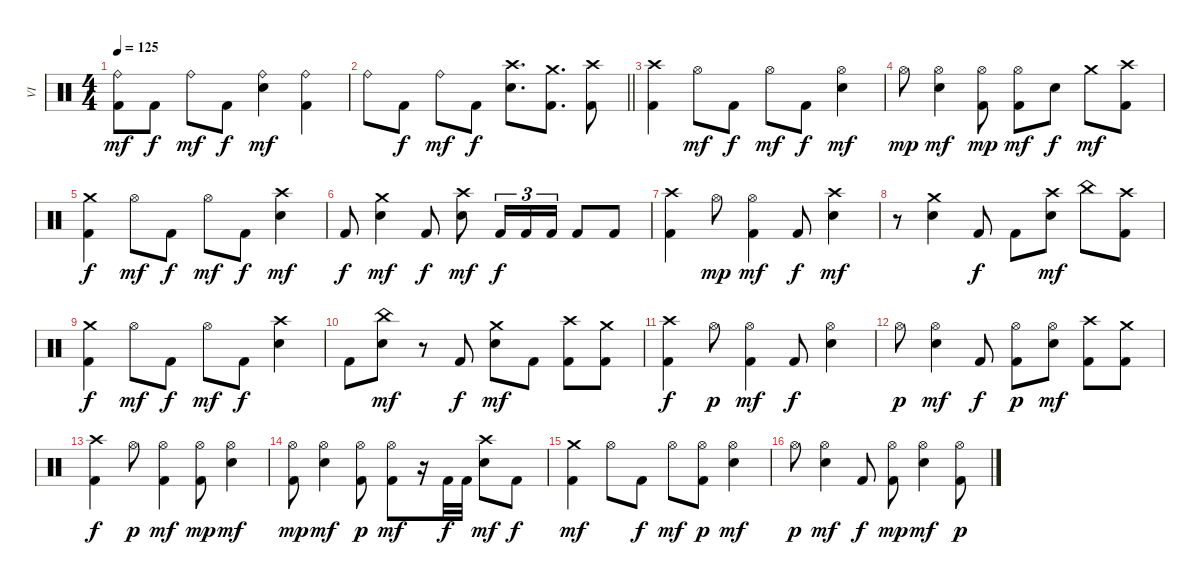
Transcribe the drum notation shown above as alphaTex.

\track ("VI" "VI") {instrument percussion}
\staff {score}
\articulation defaults
\ts (4 4)
\tempo 125
\clef neutral
\ks c
("Ride (bell)" "Kick (hit) 2").8{dy mf} "Kick (hit) 2".8{dy f} "Ride (bell)".8{dy mf} "Kick (hit) 2".8{dy f} ("Ride (bell)" "Electric Snare (hit)").4{dy mf} ("Ride (bell)" "Kick (hit) 2").4 |
\barLineRight lightlight "Ride (bell)".8 "Kick (hit) 2".8{dy f} "Ride (bell)".8{dy mf} "Kick (hit) 2".8{dy f}
("Crash high (hit)" "Electric Snare (hit)").8{d} ("Crash medium (hit)" "Kick (hit) 2").8{d} ("Crash high (hit)" "Kick (hit) 2").8 |
\section ("" "")
("Crash high (hit)" "Kick (hit) 2").4 "Hi-Hat (open)".8{dy mf} "Kick (hit) 2".8{dy f} "Hi-Hat (open)".8{dy mf} "Kick (hit) 2".8{dy f} ("Hi-Hat (open)" "Electric Snare (hit)").4{dy mf} |
"Hi-Hat (open)".8{dy mp} ("Hi-Hat (open)" "Electric Snare (hit)").4{dy mf} ("Hi-Hat (open)" "Kick (hit) 2").8{dy mp} ("Hi-Hat (open)" "Kick (hit) 2").8{dy mf} "Electric Snare (hit)".8{dy f} "Crash medium (hit)".8{dy mf} ("Crash high (hit)" "Kick (hit) 2").8 |
("Crash medium (hit)" "Kick (hit) 2").4{dy f} "Hi-Hat (open)".8{dy mf} "Kick (hit) 2".8{dy f} "Hi-Hat (open)".8{dy mf} "Kick (hit) 2".8{dy f} ("Crash high (hit)" "Electric Snare (hit)").4{dy mf} |
"Kick (hit) 2".8{dy f} ("Crash medium (hit)" "Electric Snare (hit)").4{dy mf} "Kick (hit) 2".8{dy f} ("Crash high (hit)" "Electric Snare (hit)").8{dy mf} "Kick (hit) 2".16{tu (3 2) dy f} "Kick (hit) 2".16{tu (3 2)} "Kick (hit) 2".16{tu (3 2)} "Kick (hit) 2".8 "Kick (hit) 2".8 |
("Crash high (hit)" "Kick (hit) 2").4 "Hi-Hat (open)".8{dy mp} ("Hi-Hat (open)" "Kick (hit) 2").4{dy mf} "Kick (hit) 2".8{dy f} ("Crash high (hit)" "Electric Snare (hit)").4{dy mf} |
r.8 ("Crash medium (hit)" "Electric Snare (hit)").4 "Kick (hit) 2".8{dy f} "Kick (hit) 2".8 ("Crash high (hit)" "Electric Snare (hit)").8{dy mf} "China (hit)".8 ("Crash high (hit)" "Kick (hit) 2").8 |
("Crash medium (hit)" "Kick (hit) 2").4{dy f} "Hi-Hat (open)".8{dy mf} "Kick (hit) 2".8{dy f} "Hi-Hat (open)".8{dy mf} "Kick (hit) 2".8{dy f} ("Crash high (hit)" "Electric Snare (hit)").4 |
"Kick (hit) 2".8 ("China (hit)" "Electric Snare (hit)").8{dy mf} r.8 "Kick (hit) 2".8{dy f} ("Crash medium (hit)" "Electric Snare (hit)").8{dy mf} "Kick (hit) 2".8 ("Crash high (hit)" "Kick (hit) 2").8 ("Crash medium (hit)" "Kick (hit) 2").8 |
("Crash high (hit)" "Kick (hit) 2").4{dy f} "Hi-Hat (open)".8{dy p} ("Hi-Hat (open)" "Kick (hit) 2").4{dy mf} "Kick (hit) 2".8{dy f} ("Hi-Hat (open)" "Electric Snare (hit)").4 |
"Hi-Hat (open)".8{dy p} ("Hi-Hat (open)" "Electric Snare (hit)").4{dy mf} "Kick (hit) 2".8{dy f} ("Hi-Hat (open)" "Kick (hit) 2").8{dy p} ("Hi-Hat (open)" "Electric Snare (hit)").8{dy mf} ("Crash high (hit)" "Kick (hit) 2").8 ("Crash medium (hit)" "Kick (hit) 2").8 |
("Crash high (hit)" "Kick (hit) 2").4{dy f} "Hi-Hat (open)".8{dy p} ("Hi-Hat (open)" "Kick (hit) 2").4{dy mf} ("Hi-Hat (open)" "Kick (hit) 2").8{dy mp} ("Hi-Hat (open)" "Electric Snare (hit)").4{dy mf} |
("Hi-Hat (open)" "Kick (hit) 2").8{dy mp} ("Hi-Hat (open)" "Electric Snare (hit)").4{dy mf} ("Hi-Hat (open)" "Kick (hit) 2").8{dy p} ("Hi-Hat (open)" "Kick (hit) 2").8{dy mf} r.16 "Kick (hit) 2".32{dy f} "Kick (hit) 2".32 ("Crash high (hit)" "Electric Snare (hit)").8{dy mf} "Kick (hit) 2".8{dy f} |
("Crash medium (hit)" "Kick (hit) 2").4{dy mf} "Hi-Hat (open)".8 "Kick (hit) 2".8{dy f} "Hi-Hat (open)".8{dy mf} ("Hi-Hat (open)" "Kick (hit) 2").8{dy p} ("Hi-Hat (open)" "Electric Snare (hit)").4{dy mf} |
"Hi-Hat (open)".8{dy p} ("Hi-Hat (open)" "Electric Snare (hit)").4{dy mf} "Kick (hit) 2".8{dy f} ("Hi-Hat (open)" "Kick (hit) 2").8{dy mp} ("Hi-Hat (open)" "Electric Snare (hit)").4{dy mf} ("Hi-Hat (open)" "Kick (hit) 2").8{dy p}
